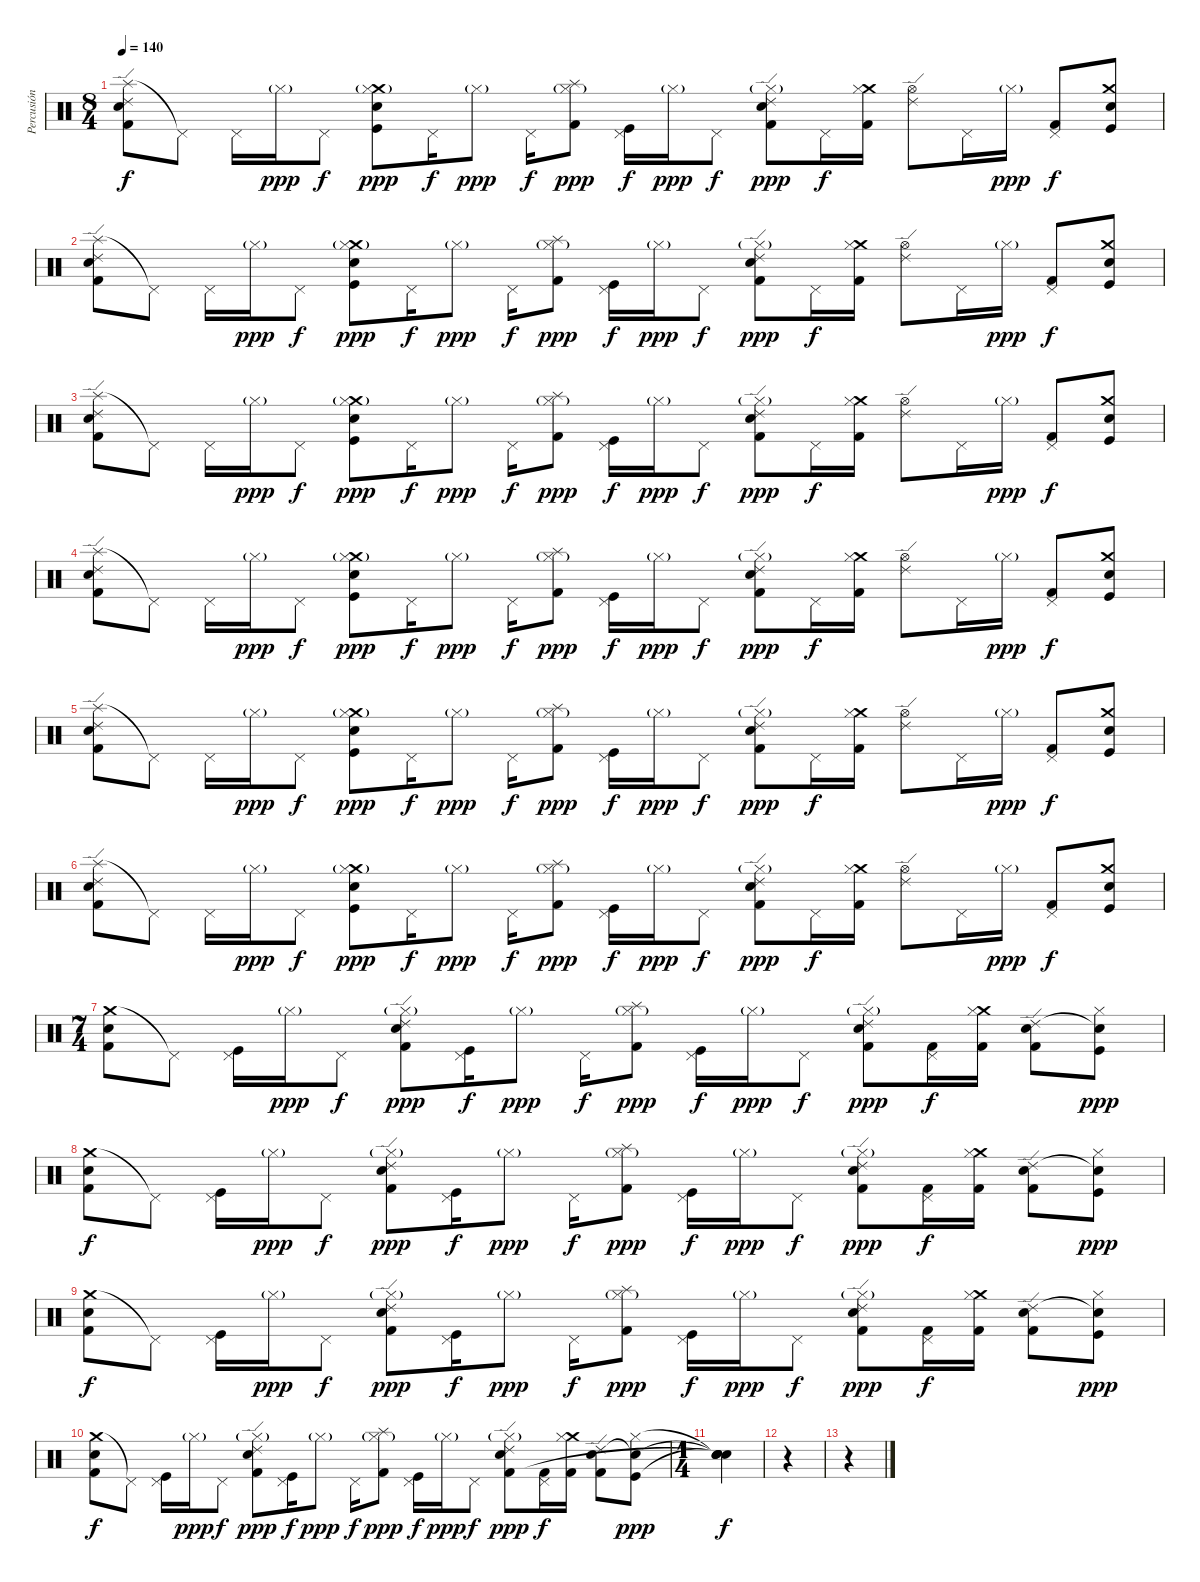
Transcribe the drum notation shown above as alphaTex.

\track ("Percusión" "Percusión") {instrument percussion}
\staff {score}
\articulation defaults
\ts (8 4)
\tempo 140
\clef neutral
\ks c
("Splash (hit)" "Ride (edge) 2" "Electric Snare (hit)" "Kick (hit) 2").8{dy f} "Pedal Hi-Hat (hit)"{t}.8 "Pedal Hi-Hat (hit)".16 "Hi-Hat (closed)"{g}.16{dy ppp} "Pedal Hi-Hat (hit)".8{dy f} ("Crash medium (hit)" "Snare (hit) 2" "Hi-Hat (closed)"{g} "Kick (hit)").8{dy ppp} "Pedal Hi-Hat (hit)".16{dy f} "Hi-Hat (closed)"{g}.8{dy ppp} "Pedal Hi-Hat (hit)".16{dy f} ("Splash (hit)" "Hi-Hat (closed)"{g} "Kick (hit) 2").8{dy ppp} ("Pedal Hi-Hat (hit)" "Kick (hit)").16{dy f} "Hi-Hat (closed)"{g}.16{dy ppp} "Pedal Hi-Hat (hit)".8{dy f} ("Ride (edge) 2" "Electric Snare (hit)" "Hi-Hat (closed)"{g} "Kick (hit) 2").8{dy ppp} "Pedal Hi-Hat (hit)".16{dy f} ("Crash medium (hit)" "Hi-Hat (closed)" "Kick (hit) 2").16 ("Ride (edge) 2" "Hi-Hat (open)").8 "Pedal Hi-Hat (hit)".16 "Hi-Hat (closed)"{g}.16{dy ppp} ("Pedal Hi-Hat (hit)" "Kick (hit) 2").8{dy f} ("Crash medium (hit)" "Electric Snare (hit)" "Kick (hit)").8 |
("Splash (hit)" "Ride (edge) 2" "Electric Snare (hit)" "Kick (hit) 2").8 "Pedal Hi-Hat (hit)"{t}.8 "Pedal Hi-Hat (hit)".16 "Hi-Hat (closed)"{g}.16{dy ppp} "Pedal Hi-Hat (hit)".8{dy f} ("Crash medium (hit)" "Snare (hit) 2" "Hi-Hat (closed)"{g} "Kick (hit)").8{dy ppp} "Pedal Hi-Hat (hit)".16{dy f} "Hi-Hat (closed)"{g}.8{dy ppp} "Pedal Hi-Hat (hit)".16{dy f} ("Splash (hit)" "Hi-Hat (closed)"{g} "Kick (hit) 2").8{dy ppp} ("Pedal Hi-Hat (hit)" "Kick (hit)").16{dy f} "Hi-Hat (closed)"{g}.16{dy ppp} "Pedal Hi-Hat (hit)".8{dy f} ("Ride (edge) 2" "Electric Snare (hit)" "Hi-Hat (closed)"{g} "Kick (hit) 2").8{dy ppp} "Pedal Hi-Hat (hit)".16{dy f} ("Crash medium (hit)" "Hi-Hat (closed)" "Kick (hit) 2").16 ("Ride (edge) 2" "Hi-Hat (open)").8 "Pedal Hi-Hat (hit)".16 "Hi-Hat (closed)"{g}.16{dy ppp} ("Pedal Hi-Hat (hit)" "Kick (hit) 2").8{dy f} ("Crash medium (hit)" "Electric Snare (hit)" "Kick (hit)").8 |
("Splash (hit)" "Ride (edge) 2" "Electric Snare (hit)" "Kick (hit) 2").8 "Pedal Hi-Hat (hit)"{t}.8 "Pedal Hi-Hat (hit)".16 "Hi-Hat (closed)"{g}.16{dy ppp} "Pedal Hi-Hat (hit)".8{dy f} ("Crash medium (hit)" "Snare (hit) 2" "Hi-Hat (closed)"{g} "Kick (hit)").8{dy ppp} "Pedal Hi-Hat (hit)".16{dy f} "Hi-Hat (closed)"{g}.8{dy ppp} "Pedal Hi-Hat (hit)".16{dy f} ("Splash (hit)" "Hi-Hat (closed)"{g} "Kick (hit) 2").8{dy ppp} ("Pedal Hi-Hat (hit)" "Kick (hit)").16{dy f} "Hi-Hat (closed)"{g}.16{dy ppp} "Pedal Hi-Hat (hit)".8{dy f} ("Ride (edge) 2" "Electric Snare (hit)" "Hi-Hat (closed)"{g} "Kick (hit) 2").8{dy ppp} "Pedal Hi-Hat (hit)".16{dy f} ("Crash medium (hit)" "Hi-Hat (closed)" "Kick (hit) 2").16 ("Ride (edge) 2" "Hi-Hat (open)").8 "Pedal Hi-Hat (hit)".16 "Hi-Hat (closed)"{g}.16{dy ppp} ("Pedal Hi-Hat (hit)" "Kick (hit) 2").8{dy f} ("Crash medium (hit)" "Electric Snare (hit)" "Kick (hit)").8 |
("Splash (hit)" "Ride (edge) 2" "Electric Snare (hit)" "Kick (hit) 2").8 "Pedal Hi-Hat (hit)"{t}.8 "Pedal Hi-Hat (hit)".16 "Hi-Hat (closed)"{g}.16{dy ppp} "Pedal Hi-Hat (hit)".8{dy f} ("Crash medium (hit)" "Snare (hit) 2" "Hi-Hat (closed)"{g} "Kick (hit)").8{dy ppp} "Pedal Hi-Hat (hit)".16{dy f} "Hi-Hat (closed)"{g}.8{dy ppp} "Pedal Hi-Hat (hit)".16{dy f} ("Splash (hit)" "Hi-Hat (closed)"{g} "Kick (hit) 2").8{dy ppp} ("Pedal Hi-Hat (hit)" "Kick (hit)").16{dy f} "Hi-Hat (closed)"{g}.16{dy ppp} "Pedal Hi-Hat (hit)".8{dy f} ("Ride (edge) 2" "Electric Snare (hit)" "Hi-Hat (closed)"{g} "Kick (hit) 2").8{dy ppp} "Pedal Hi-Hat (hit)".16{dy f} ("Crash medium (hit)" "Hi-Hat (closed)" "Kick (hit) 2").16 ("Ride (edge) 2" "Hi-Hat (open)").8 "Pedal Hi-Hat (hit)".16 "Hi-Hat (closed)"{g}.16{dy ppp} ("Pedal Hi-Hat (hit)" "Kick (hit) 2").8{dy f} ("Crash medium (hit)" "Electric Snare (hit)" "Kick (hit)").8 |
("Splash (hit)" "Ride (edge) 2" "Electric Snare (hit)" "Kick (hit) 2").8 "Pedal Hi-Hat (hit)"{t}.8 "Pedal Hi-Hat (hit)".16 "Hi-Hat (closed)"{g}.16{dy ppp} "Pedal Hi-Hat (hit)".8{dy f} ("Crash medium (hit)" "Snare (hit) 2" "Hi-Hat (closed)"{g} "Kick (hit)").8{dy ppp} "Pedal Hi-Hat (hit)".16{dy f} "Hi-Hat (closed)"{g}.8{dy ppp} "Pedal Hi-Hat (hit)".16{dy f} ("Splash (hit)" "Hi-Hat (closed)"{g} "Kick (hit) 2").8{dy ppp} ("Pedal Hi-Hat (hit)" "Kick (hit)").16{dy f} "Hi-Hat (closed)"{g}.16{dy ppp} "Pedal Hi-Hat (hit)".8{dy f} ("Ride (edge) 2" "Electric Snare (hit)" "Hi-Hat (closed)"{g} "Kick (hit) 2").8{dy ppp} "Pedal Hi-Hat (hit)".16{dy f} ("Crash medium (hit)" "Hi-Hat (closed)" "Kick (hit) 2").16 ("Ride (edge) 2" "Hi-Hat (open)").8 "Pedal Hi-Hat (hit)".16 "Hi-Hat (closed)"{g}.16{dy ppp} ("Pedal Hi-Hat (hit)" "Kick (hit) 2").8{dy f} ("Crash medium (hit)" "Electric Snare (hit)" "Kick (hit)").8 |
("Splash (hit)" "Ride (edge) 2" "Electric Snare (hit)" "Kick (hit) 2").8 "Pedal Hi-Hat (hit)"{t}.8 "Pedal Hi-Hat (hit)".16 "Hi-Hat (closed)"{g}.16{dy ppp} "Pedal Hi-Hat (hit)".8{dy f} ("Crash medium (hit)" "Snare (hit) 2" "Hi-Hat (closed)"{g} "Kick (hit)").8{dy ppp} "Pedal Hi-Hat (hit)".16{dy f} "Hi-Hat (closed)"{g}.8{dy ppp} "Pedal Hi-Hat (hit)".16{dy f} ("Splash (hit)" "Hi-Hat (closed)"{g} "Kick (hit) 2").8{dy ppp} ("Pedal Hi-Hat (hit)" "Kick (hit)").16{dy f} "Hi-Hat (closed)"{g}.16{dy ppp} "Pedal Hi-Hat (hit)".8{dy f} ("Ride (edge) 2" "Electric Snare (hit)" "Hi-Hat (closed)"{g} "Kick (hit) 2").8{dy ppp} "Pedal Hi-Hat (hit)".16{dy f} ("Crash medium (hit)" "Hi-Hat (closed)" "Kick (hit) 2").16 ("Ride (edge) 2" "Hi-Hat (open)").8 "Pedal Hi-Hat (hit)".16 "Hi-Hat (closed)"{g}.16{dy ppp} ("Pedal Hi-Hat (hit)" "Kick (hit) 2").8{dy f} ("Crash medium (hit)" "Electric Snare (hit)" "Kick (hit)").8 |
\ts (7 4)
("Crash medium (hit)" "Electric Snare (hit)" "Kick (hit) 2").8 "Pedal Hi-Hat (hit)"{t}.8 ("Pedal Hi-Hat (hit)" "Kick (hit)").16 "Hi-Hat (closed)"{g}.16{dy ppp} "Pedal Hi-Hat (hit)".8{dy f} ("Ride (edge) 2" "Electric Snare (hit)" "Hi-Hat (closed)"{g} "Kick (hit) 2").8{dy ppp} ("Pedal Hi-Hat (hit)" "Kick (hit)").16{dy f} "Hi-Hat (closed)"{g}.8{dy ppp} "Pedal Hi-Hat (hit)".16{dy f} ("Splash (hit)" "Hi-Hat (closed)"{g} "Kick (hit) 2").8{dy ppp} ("Pedal Hi-Hat (hit)" "Kick (hit)").16{dy f} "Hi-Hat (closed)"{g}.16{dy ppp} "Pedal Hi-Hat (hit)".8{dy f} ("Ride (edge) 2" "Electric Snare (hit)" "Hi-Hat (closed)"{g} "Kick (hit) 2").8{dy ppp} ("Pedal Hi-Hat (hit)" "Kick (hit) 2").16{dy f} ("Crash medium (hit)" "Hi-Hat (closed)" "Kick (hit) 2").16 ("Ride (edge) 2" "Electric Snare (hit)" "Kick (hit) 2").8 ("Snare (hit)"{t} "Hi-Hat (closed)" "Kick (hit)").8{dy ppp} |
("Crash medium (hit)" "Electric Snare (hit)" "Kick (hit) 2").8{dy f} "Pedal Hi-Hat (hit)"{t}.8 ("Pedal Hi-Hat (hit)" "Kick (hit)").16 "Hi-Hat (closed)"{g}.16{dy ppp} "Pedal Hi-Hat (hit)".8{dy f} ("Ride (edge) 2" "Electric Snare (hit)" "Hi-Hat (closed)"{g} "Kick (hit) 2").8{dy ppp} ("Pedal Hi-Hat (hit)" "Kick (hit)").16{dy f} "Hi-Hat (closed)"{g}.8{dy ppp} "Pedal Hi-Hat (hit)".16{dy f} ("Splash (hit)" "Hi-Hat (closed)"{g} "Kick (hit) 2").8{dy ppp} ("Pedal Hi-Hat (hit)" "Kick (hit)").16{dy f} "Hi-Hat (closed)"{g}.16{dy ppp} "Pedal Hi-Hat (hit)".8{dy f} ("Ride (edge) 2" "Electric Snare (hit)" "Hi-Hat (closed)"{g} "Kick (hit) 2").8{dy ppp} ("Pedal Hi-Hat (hit)" "Kick (hit) 2").16{dy f} ("Crash medium (hit)" "Hi-Hat (closed)" "Kick (hit) 2").16 ("Ride (edge) 2" "Electric Snare (hit)" "Kick (hit) 2").8 ("Snare (hit)"{t} "Hi-Hat (closed)" "Kick (hit)").8{dy ppp} |
("Crash medium (hit)" "Electric Snare (hit)" "Kick (hit) 2").8{dy f} "Pedal Hi-Hat (hit)"{t}.8 ("Pedal Hi-Hat (hit)" "Kick (hit)").16 "Hi-Hat (closed)"{g}.16{dy ppp} "Pedal Hi-Hat (hit)".8{dy f} ("Ride (edge) 2" "Electric Snare (hit)" "Hi-Hat (closed)"{g} "Kick (hit) 2").8{dy ppp} ("Pedal Hi-Hat (hit)" "Kick (hit)").16{dy f} "Hi-Hat (closed)"{g}.8{dy ppp} "Pedal Hi-Hat (hit)".16{dy f} ("Splash (hit)" "Hi-Hat (closed)"{g} "Kick (hit) 2").8{dy ppp} ("Pedal Hi-Hat (hit)" "Kick (hit)").16{dy f} "Hi-Hat (closed)"{g}.16{dy ppp} "Pedal Hi-Hat (hit)".8{dy f} ("Ride (edge) 2" "Electric Snare (hit)" "Hi-Hat (closed)"{g} "Kick (hit) 2").8{dy ppp} ("Pedal Hi-Hat (hit)" "Kick (hit) 2").16{dy f} ("Crash medium (hit)" "Hi-Hat (closed)" "Kick (hit) 2").16 ("Ride (edge) 2" "Electric Snare (hit)" "Kick (hit) 2").8 ("Snare (hit)"{t} "Hi-Hat (closed)" "Kick (hit)").8{dy ppp} |
("Crash medium (hit)" "Electric Snare (hit)" "Kick (hit) 2").8{dy f} "Pedal Hi-Hat (hit)"{t}.8 ("Pedal Hi-Hat (hit)" "Kick (hit)").16 "Hi-Hat (closed)"{g}.16{dy ppp} "Pedal Hi-Hat (hit)".8{dy f} ("Ride (edge) 2" "Electric Snare (hit)" "Hi-Hat (closed)"{g} "Kick (hit) 2").8{dy ppp} ("Pedal Hi-Hat (hit)" "Kick (hit)").16{dy f} "Hi-Hat (closed)"{g}.8{dy ppp} "Pedal Hi-Hat (hit)".16{dy f} ("Splash (hit)" "Hi-Hat (closed)"{g} "Kick (hit) 2").8{dy ppp} ("Pedal Hi-Hat (hit)" "Kick (hit)").16{dy f} "Hi-Hat (closed)"{g}.16{dy ppp} "Pedal Hi-Hat (hit)".8{dy f} ("Ride (edge) 2" "Electric Snare (hit)" "Hi-Hat (closed)"{g} "Kick (hit) 2").8{dy ppp} ("Pedal Hi-Hat (hit)" "Kick (hit) 2").16{dy f} ("Crash medium (hit)" "Hi-Hat (closed)" "Kick (hit) 2").16 ("Ride (edge) 2" "Electric Snare (hit)" "Kick (hit) 2").8 ("Snare (hit)"{t} "Hi-Hat (closed)" "Kick (hit)").8{dy ppp} |
\ts (1 4)
("Snare (hit)"{t} "Snare (hit)"{t} "Snare (hit)"{t} "Snare (hit)"{t}).4{dy f} |
r.4 |
r.4
